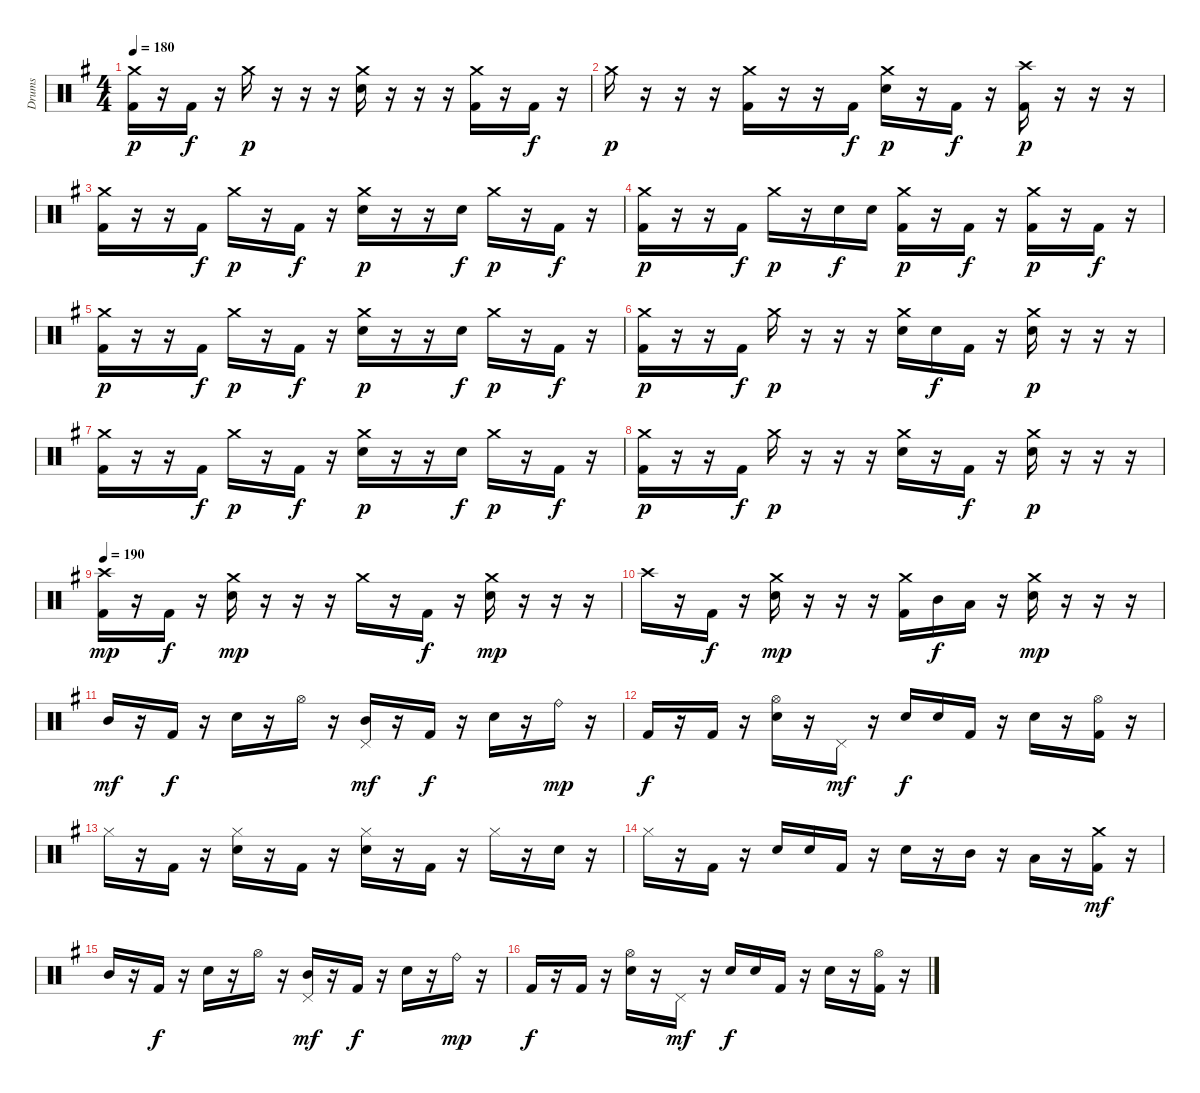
\track ("Drums" "Drums") {instrument percussion}
\staff {score}
\articulation defaults
\ts (4 4)
\tempo 180
\clef neutral
\ks g
("Crash medium (hit)" "Kick (hit) 2").16{dy p} r.16 "Kick (hit) 2".16{dy f} r.16 "Crash medium (hit)".16{dy p} r.16 r.16 r.16 ("Crash medium (hit)" "Snare (hit) 2").16 r.16 r.16 r.16 ("Crash medium (hit)" "Kick (hit) 2").16 r.16 "Kick (hit) 2".16{dy f} r.16 |
"Crash medium (hit)".16{dy p} r.16 r.16 r.16 ("Crash medium (hit)" "Kick (hit) 2").16 r.16 r.16 "Kick (hit) 2".16{dy f} ("Crash medium (hit)" "Snare (hit) 2").16{dy p} r.16 "Kick (hit) 2".16{dy f} r.16 ("Crash high (hit)" "Kick (hit) 2").16{dy p} r.16 r.16 r.16 |
("Crash medium (hit)" "Kick (hit) 2").16 r.16 r.16 "Kick (hit) 2".16{dy f} "Crash medium (hit)".16{dy p} r.16 "Kick (hit) 2".16{dy f} r.16 ("Crash medium (hit)" "Snare (hit) 2").16{dy p} r.16 r.16 "Snare (hit) 2".16{dy f} "Crash medium (hit)".16{dy p} r.16 "Kick (hit) 2".16{dy f} r.16 |
("Crash medium (hit)" "Kick (hit) 2").16{dy p} r.16 r.16 "Kick (hit) 2".16{dy f} "Crash medium (hit)".16{dy p} r.16 "Snare (hit) 2".16{dy f} "Snare (hit) 2".16 ("Crash medium (hit)" "Kick (hit) 2").16{dy p} r.16 "Kick (hit) 2".16{dy f} r.16 ("Crash medium (hit)" "Kick (hit) 2").16{dy p} r.16 "Kick (hit) 2".16{dy f} r.16 |
("Crash medium (hit)" "Kick (hit) 2").16{dy p} r.16 r.16 "Kick (hit) 2".16{dy f} "Crash medium (hit)".16{dy p} r.16 "Kick (hit) 2".16{dy f} r.16 ("Crash medium (hit)" "Snare (hit) 2").16{dy p} r.16 r.16 "Snare (hit) 2".16{dy f} "Crash medium (hit)".16{dy p} r.16 "Kick (hit) 2".16{dy f} r.16 |
("Crash medium (hit)" "Kick (hit) 2").16{dy p} r.16 r.16 "Kick (hit) 2".16{dy f} "Crash medium (hit)".16{dy p} r.16 r.16 r.16 ("Crash medium (hit)" "Snare (hit) 2").16 "Snare (hit) 2".16{dy f} "Kick (hit) 2".16 r.16 ("Crash medium (hit)" "Snare (hit) 2").16{dy p} r.16 r.16 r.16 |
("Crash medium (hit)" "Kick (hit) 2").16 r.16 r.16 "Kick (hit) 2".16{dy f} "Crash medium (hit)".16{dy p} r.16 "Kick (hit) 2".16{dy f} r.16 ("Crash medium (hit)" "Snare (hit) 2").16{dy p} r.16 r.16 "Snare (hit) 2".16{dy f} "Crash medium (hit)".16{dy p} r.16 "Kick (hit) 2".16{dy f} r.16 |
("Crash medium (hit)" "Kick (hit) 2").16{dy p} r.16 r.16 "Kick (hit) 2".16{dy f} "Crash medium (hit)".16{dy p} r.16 r.16 r.16 ("Crash medium (hit)" "Snare (hit) 2").16 r.16 "Kick (hit) 2".16{dy f} r.16 ("Crash medium (hit)" "Snare (hit) 2").16{dy p} r.16 r.16 r.16 |
\tempo 190
("Crash high (hit)" "Kick (hit) 2").16{dy mp} r.16 "Kick (hit) 2".16{dy f} r.16 ("Crash medium (hit)" "Snare (hit) 2").16{dy mp} r.16 r.16 r.16 "Crash medium (hit)".16 r.16 "Kick (hit) 2".16{dy f} r.16 ("Crash medium (hit)" "Snare (hit) 2").16{dy mp} r.16 r.16 r.16 |
"Crash high (hit)".16 r.16 "Kick (hit) 2".16{dy f} r.16 ("Crash medium (hit)" "Snare (hit) 2").16{dy mp} r.16 r.16 r.16 ("Crash medium (hit)" "Kick (hit) 2").16 "Mid Tom (hit)".16{dy f} "Low Tom (hit)".16 r.16 ("Crash medium (hit)" "Snare (hit) 2").16{dy mp} r.16 r.16 r.16 |
"Mid Tom (hit)".16{dy mf} r.16 "Kick (hit) 2".16{dy f} r.16 "Snare (hit) 2".16 r.16 "Hi-Hat (open)".16 r.16 ("Pedal Hi-Hat (hit)" "Mid Tom (hit)").16{dy mf} r.16 "Kick (hit) 2".16{dy f} r.16 "Snare (hit) 2".16 r.16 "Ride (bell)".16{dy mp} r.16 |
"Kick (hit) 2".16{dy f} r.16 "Kick (hit) 2".16 r.16 ("Hi-Hat (open)" "Snare (hit) 2").16 r.16 "Pedal Hi-Hat (hit)".16{dy mf} r.16 "Snare (hit) 2".16{dy f} "Snare (hit) 2".16 "Kick (hit) 2".16 r.16 "Snare (hit) 2".16 r.16 ("Hi-Hat (open)" "Kick (hit) 2").16 r.16 |
"Hi-Hat (closed)".16 r.16 "Kick (hit) 2".16 r.16 ("Hi-Hat (closed)" "Snare (hit) 2").16 r.16 "Kick (hit) 2".16 r.16 ("Hi-Hat (closed)" "Snare (hit) 2").16 r.16 "Kick (hit) 2".16 r.16 "Hi-Hat (closed)".16 r.16 "Snare (hit) 2".16 r.16 |
"Hi-Hat (closed)".16 r.16 "Kick (hit) 2".16 r.16 "Snare (hit) 2".16 "Snare (hit) 2".16 "Kick (hit) 2".16 r.16 "Snare (hit) 2".16 r.16 "Mid Tom (hit)".16 r.16 "Low Tom (hit)".16 r.16 ("Crash medium (hit)" "Kick (hit) 2").16{dy mf} r.16 |
"Mid Tom (hit)".16 r.16 "Kick (hit) 2".16{dy f} r.16 "Snare (hit) 2".16 r.16 "Hi-Hat (open)".16 r.16 ("Pedal Hi-Hat (hit)" "Mid Tom (hit)").16{dy mf} r.16 "Kick (hit) 2".16{dy f} r.16 "Snare (hit) 2".16 r.16 "Ride (bell)".16{dy mp} r.16 |
"Kick (hit) 2".16{dy f} r.16 "Kick (hit) 2".16 r.16 ("Hi-Hat (open)" "Snare (hit) 2").16 r.16 "Pedal Hi-Hat (hit)".16{dy mf} r.16 "Snare (hit) 2".16{dy f} "Snare (hit) 2".16 "Kick (hit) 2".16 r.16 "Snare (hit) 2".16 r.16 ("Hi-Hat (open)" "Kick (hit) 2").16 r.16
